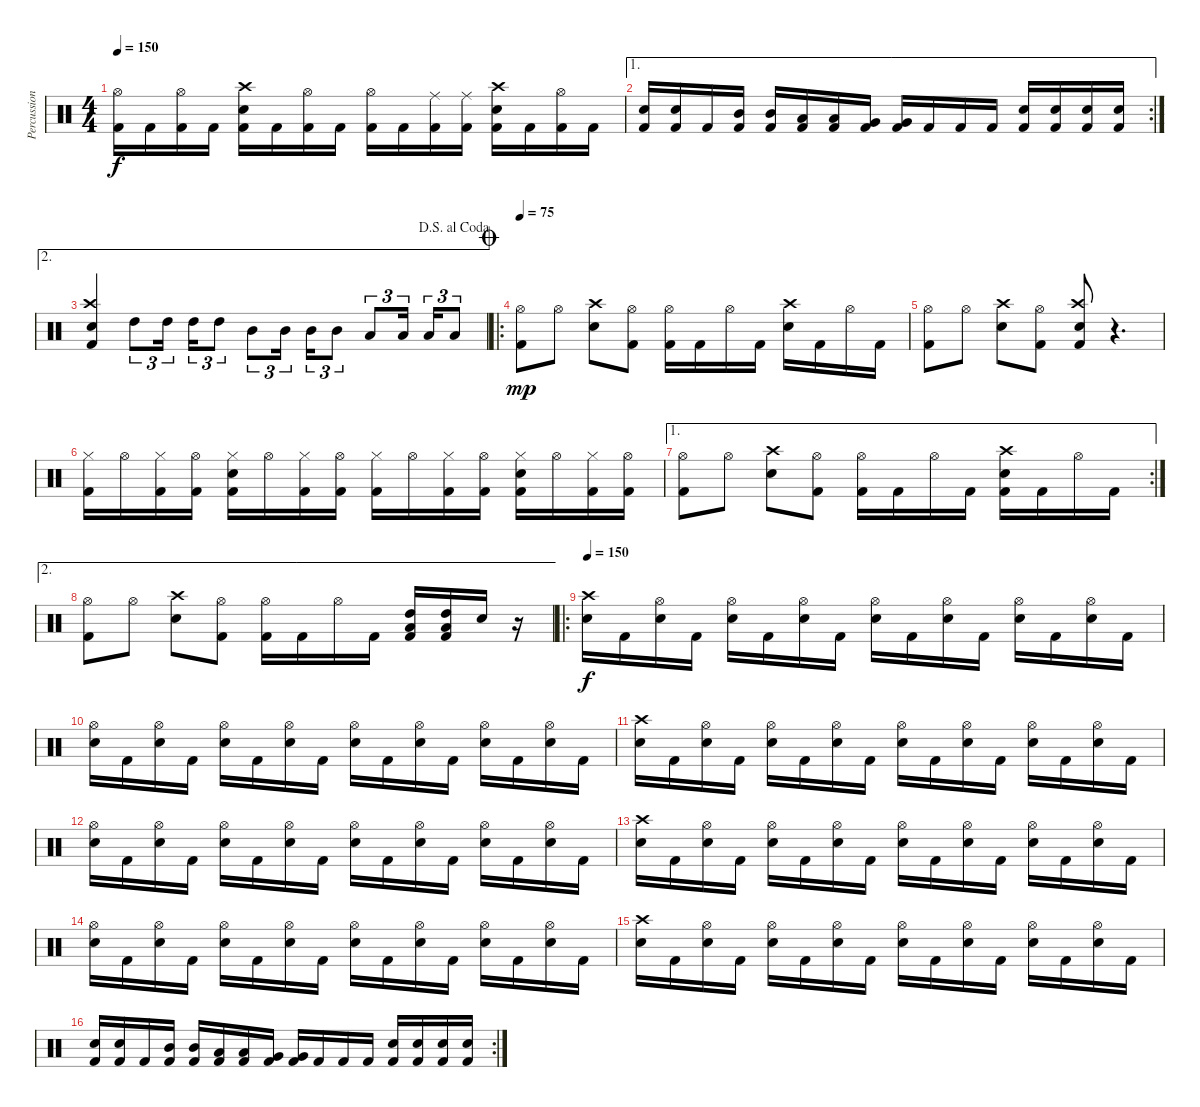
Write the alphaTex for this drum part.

\track ("Percussion" "Percussion") {instrument percussion}
\staff {score}
\articulation defaults
\ts (4 4)
\tempo 150
\clef neutral
\ks c
("Hi-Hat (open)" "Kick (hit) 2").16{dy f} "Kick (hit) 2".16 ("Hi-Hat (open)" "Kick (hit) 2").16 "Kick (hit) 2".16 ("Crash high (hit)" "Electric Snare (hit)" "Kick (hit) 2").16 "Kick (hit) 2".16 ("Hi-Hat (open)" "Kick (hit) 2").16 "Kick (hit) 2".16 ("Hi-Hat (open)" "Kick (hit) 2").16 "Kick (hit) 2".16 ("Ride (middle)" "Kick (hit) 2").16 ("Ride (middle)" "Kick (hit) 2").16 ("Crash high (hit)" "Electric Snare (hit)" "Kick (hit) 2").16 "Kick (hit) 2".16 ("Hi-Hat (open)" "Kick (hit) 2").16 "Kick (hit) 2".16 |
\ae 1
\rc 2
("Electric Snare (hit)" "Kick (hit) 2").16 ("Electric Snare (hit)" "Kick (hit) 2").16 "Kick (hit) 2".16 ("Mid Tom (hit)" "Kick (hit) 2").16 ("Mid Tom (hit)" "Kick (hit) 2").16 ("Low Tom (hit)" "Kick (hit) 2").16 ("Low Tom (hit)" "Kick (hit) 2").16 ("Very Low Tom (hit)" "Kick (hit) 2").16 ("Very Low Tom (hit)" "Kick (hit) 2").16 "Kick (hit) 2".16 "Kick (hit) 2".16 "Kick (hit) 2".16 ("Electric Snare (hit)" "Kick (hit) 2").16 ("Electric Snare (hit)" "Kick (hit) 2").16 ("Electric Snare (hit)" "Kick (hit) 2").16 ("Electric Snare (hit)" "Kick (hit) 2").16 |
\ae 2
\jump dalsegnoalcoda
("Crash high (hit)" "Electric Snare (hit)" "Kick (hit) 2").4 "High Tom (hit)".8{tu (3 2)} "High Tom (hit)".16{tu (3 2) beam splitsecondary} "High Tom (hit)".16{tu (3 2)} "High Tom (hit)".8{tu (3 2)} "Mid Tom (hit)".8{tu (3 2)} "Mid Tom (hit)".16{tu (3 2) beam splitsecondary} "Mid Tom (hit)".16{tu (3 2)} "Mid Tom (hit)".8{tu (3 2)} "Low Tom (hit)".8{tu (3 2)} "Low Tom (hit)".16{tu (3 2) beam splitsecondary} "Low Tom (hit)".16{tu (3 2)} "Low Tom (hit)".8{tu (3 2)} |
\ro
\jump coda
\tempo 75
("Hi-Hat (open)" "Kick (hit) 2").8{dy mp} "Hi-Hat (open)".8 ("Crash high (hit)" "Electric Snare (hit)").8 ("Hi-Hat (open)" "Kick (hit) 2").8 ("Hi-Hat (open)" "Kick (hit) 2").16 "Kick (hit) 2".16 "Hi-Hat (open)".16 "Kick (hit) 2".16 ("Crash high (hit)" "Electric Snare (hit)").16 "Kick (hit) 2".16 "Hi-Hat (open)".16 "Kick (hit) 2".16 |
("Hi-Hat (open)" "Kick (hit) 2").8 "Hi-Hat (open)".8 ("Crash high (hit)" "Electric Snare (hit)").8 ("Hi-Hat (open)" "Kick (hit) 2").8 ("Crash high (hit)" "Electric Snare (hit)" "Kick (hit) 2").8 r.4{d} |
("Hi-Hat (closed)" "Kick (hit) 2").16 "Hi-Hat (open)".16 ("Hi-Hat (closed)" "Kick (hit) 2").16 ("Hi-Hat (open)" "Kick (hit) 2").16 ("Hi-Hat (closed)" "Electric Snare (hit)" "Kick (hit) 2").16 "Hi-Hat (open)".16 ("Hi-Hat (closed)" "Kick (hit) 2").16 ("Hi-Hat (open)" "Kick (hit) 2").16 ("Hi-Hat (closed)" "Kick (hit) 2").16 "Hi-Hat (open)".16 ("Hi-Hat (closed)" "Kick (hit) 2").16 ("Hi-Hat (open)" "Kick (hit) 2").16 ("Hi-Hat (closed)" "Electric Snare (hit)" "Kick (hit) 2").16 "Hi-Hat (open)".16 ("Hi-Hat (closed)" "Kick (hit) 2").16 ("Hi-Hat (open)" "Kick (hit) 2").16 |
\ae 1
\rc 2
("Hi-Hat (open)" "Kick (hit) 2").8 "Hi-Hat (open)".8 ("Crash high (hit)" "Electric Snare (hit)").8 ("Hi-Hat (open)" "Kick (hit) 2").8 ("Hi-Hat (open)" "Kick (hit) 2").16 "Kick (hit) 2".16 "Hi-Hat (open)".16 "Kick (hit) 2".16 ("Crash high (hit)" "Electric Snare (hit)" "Kick (hit) 2").16 "Kick (hit) 2".16 "Hi-Hat (open)".16 "Kick (hit) 2".16 |
\ae 2
("Hi-Hat (open)" "Kick (hit) 2").8 "Hi-Hat (open)".8 ("Crash high (hit)" "Electric Snare (hit)").8 ("Hi-Hat (open)" "Kick (hit) 2").8 ("Hi-Hat (open)" "Kick (hit) 2").16 "Kick (hit) 2".16 "Hi-Hat (open)".16 "Kick (hit) 2".16 ("High Tom (hit)" "Low Floor Tom (hit)" "Kick (hit) 2").16 ("High Tom (hit)" "Low Floor Tom (hit)" "Kick (hit) 2").16 "Electric Snare (hit)".16 r.16 |
\ro
\tempo 150
("Crash high (hit)" "Electric Snare (hit)").16{dy f} "Kick (hit) 2".16 ("Hi-Hat (open)" "Electric Snare (hit)").16 "Kick (hit) 2".16 ("Hi-Hat (open)" "Electric Snare (hit)").16 "Kick (hit) 2".16 ("Hi-Hat (open)" "Electric Snare (hit)").16 "Kick (hit) 2".16 ("Hi-Hat (open)" "Electric Snare (hit)").16 "Kick (hit) 2".16 ("Hi-Hat (open)" "Electric Snare (hit)").16 "Kick (hit) 2".16 ("Hi-Hat (open)" "Electric Snare (hit)").16 "Kick (hit) 2".16 ("Hi-Hat (open)" "Electric Snare (hit)").16 "Kick (hit) 2".16 |
("Hi-Hat (open)" "Electric Snare (hit)").16 "Kick (hit) 2".16 ("Hi-Hat (open)" "Electric Snare (hit)").16 "Kick (hit) 2".16 ("Hi-Hat (open)" "Electric Snare (hit)").16 "Kick (hit) 2".16 ("Hi-Hat (open)" "Electric Snare (hit)").16 "Kick (hit) 2".16 ("Hi-Hat (open)" "Electric Snare (hit)").16 "Kick (hit) 2".16 ("Hi-Hat (open)" "Electric Snare (hit)").16 "Kick (hit) 2".16 ("Hi-Hat (open)" "Electric Snare (hit)").16 "Kick (hit) 2".16 ("Hi-Hat (open)" "Electric Snare (hit)").16 "Kick (hit) 2".16 |
("Crash high (hit)" "Electric Snare (hit)").16 "Kick (hit) 2".16 ("Hi-Hat (open)" "Electric Snare (hit)").16 "Kick (hit) 2".16 ("Hi-Hat (open)" "Electric Snare (hit)").16 "Kick (hit) 2".16 ("Hi-Hat (open)" "Electric Snare (hit)").16 "Kick (hit) 2".16 ("Hi-Hat (open)" "Electric Snare (hit)").16 "Kick (hit) 2".16 ("Hi-Hat (open)" "Electric Snare (hit)").16 "Kick (hit) 2".16 ("Hi-Hat (open)" "Electric Snare (hit)").16 "Kick (hit) 2".16 ("Hi-Hat (open)" "Electric Snare (hit)").16 "Kick (hit) 2".16 |
("Hi-Hat (open)" "Electric Snare (hit)").16 "Kick (hit) 2".16 ("Hi-Hat (open)" "Electric Snare (hit)").16 "Kick (hit) 2".16 ("Hi-Hat (open)" "Electric Snare (hit)").16 "Kick (hit) 2".16 ("Hi-Hat (open)" "Electric Snare (hit)").16 "Kick (hit) 2".16 ("Hi-Hat (open)" "Electric Snare (hit)").16 "Kick (hit) 2".16 ("Hi-Hat (open)" "Electric Snare (hit)").16 "Kick (hit) 2".16 ("Hi-Hat (open)" "Electric Snare (hit)").16 "Kick (hit) 2".16 ("Hi-Hat (open)" "Electric Snare (hit)").16 "Kick (hit) 2".16 |
("Crash high (hit)" "Electric Snare (hit)").16 "Kick (hit) 2".16 ("Hi-Hat (open)" "Electric Snare (hit)").16 "Kick (hit) 2".16 ("Hi-Hat (open)" "Electric Snare (hit)").16 "Kick (hit) 2".16 ("Hi-Hat (open)" "Electric Snare (hit)").16 "Kick (hit) 2".16 ("Hi-Hat (open)" "Electric Snare (hit)").16 "Kick (hit) 2".16 ("Hi-Hat (open)" "Electric Snare (hit)").16 "Kick (hit) 2".16 ("Hi-Hat (open)" "Electric Snare (hit)").16 "Kick (hit) 2".16 ("Hi-Hat (open)" "Electric Snare (hit)").16 "Kick (hit) 2".16 |
("Hi-Hat (open)" "Electric Snare (hit)").16 "Kick (hit) 2".16 ("Hi-Hat (open)" "Electric Snare (hit)").16 "Kick (hit) 2".16 ("Hi-Hat (open)" "Electric Snare (hit)").16 "Kick (hit) 2".16 ("Hi-Hat (open)" "Electric Snare (hit)").16 "Kick (hit) 2".16 ("Hi-Hat (open)" "Electric Snare (hit)").16 "Kick (hit) 2".16 ("Hi-Hat (open)" "Electric Snare (hit)").16 "Kick (hit) 2".16 ("Hi-Hat (open)" "Electric Snare (hit)").16 "Kick (hit) 2".16 ("Hi-Hat (open)" "Electric Snare (hit)").16 "Kick (hit) 2".16 |
("Crash high (hit)" "Electric Snare (hit)").16 "Kick (hit) 2".16 ("Hi-Hat (open)" "Electric Snare (hit)").16 "Kick (hit) 2".16 ("Hi-Hat (open)" "Electric Snare (hit)").16 "Kick (hit) 2".16 ("Hi-Hat (open)" "Electric Snare (hit)").16 "Kick (hit) 2".16 ("Hi-Hat (open)" "Electric Snare (hit)").16 "Kick (hit) 2".16 ("Hi-Hat (open)" "Electric Snare (hit)").16 "Kick (hit) 2".16 ("Hi-Hat (open)" "Electric Snare (hit)").16 "Kick (hit) 2".16 ("Hi-Hat (open)" "Electric Snare (hit)").16 "Kick (hit) 2".16 |
\rc 2
("Electric Snare (hit)" "Kick (hit) 2").16 ("Electric Snare (hit)" "Kick (hit) 2").16 "Kick (hit) 2".16 ("Mid Tom (hit)" "Kick (hit) 2").16 ("Mid Tom (hit)" "Kick (hit) 2").16 ("Low Tom (hit)" "Kick (hit) 2").16 ("Low Tom (hit)" "Kick (hit) 2").16 ("Very Low Tom (hit)" "Kick (hit) 2").16 ("Very Low Tom (hit)" "Kick (hit) 2").16 "Kick (hit) 2".16 "Kick (hit) 2".16 "Kick (hit) 2".16 ("Electric Snare (hit)" "Kick (hit) 2").16 ("Electric Snare (hit)" "Kick (hit) 2").16 ("Electric Snare (hit)" "Kick (hit) 2").16 ("Electric Snare (hit)" "Kick (hit) 2").16
